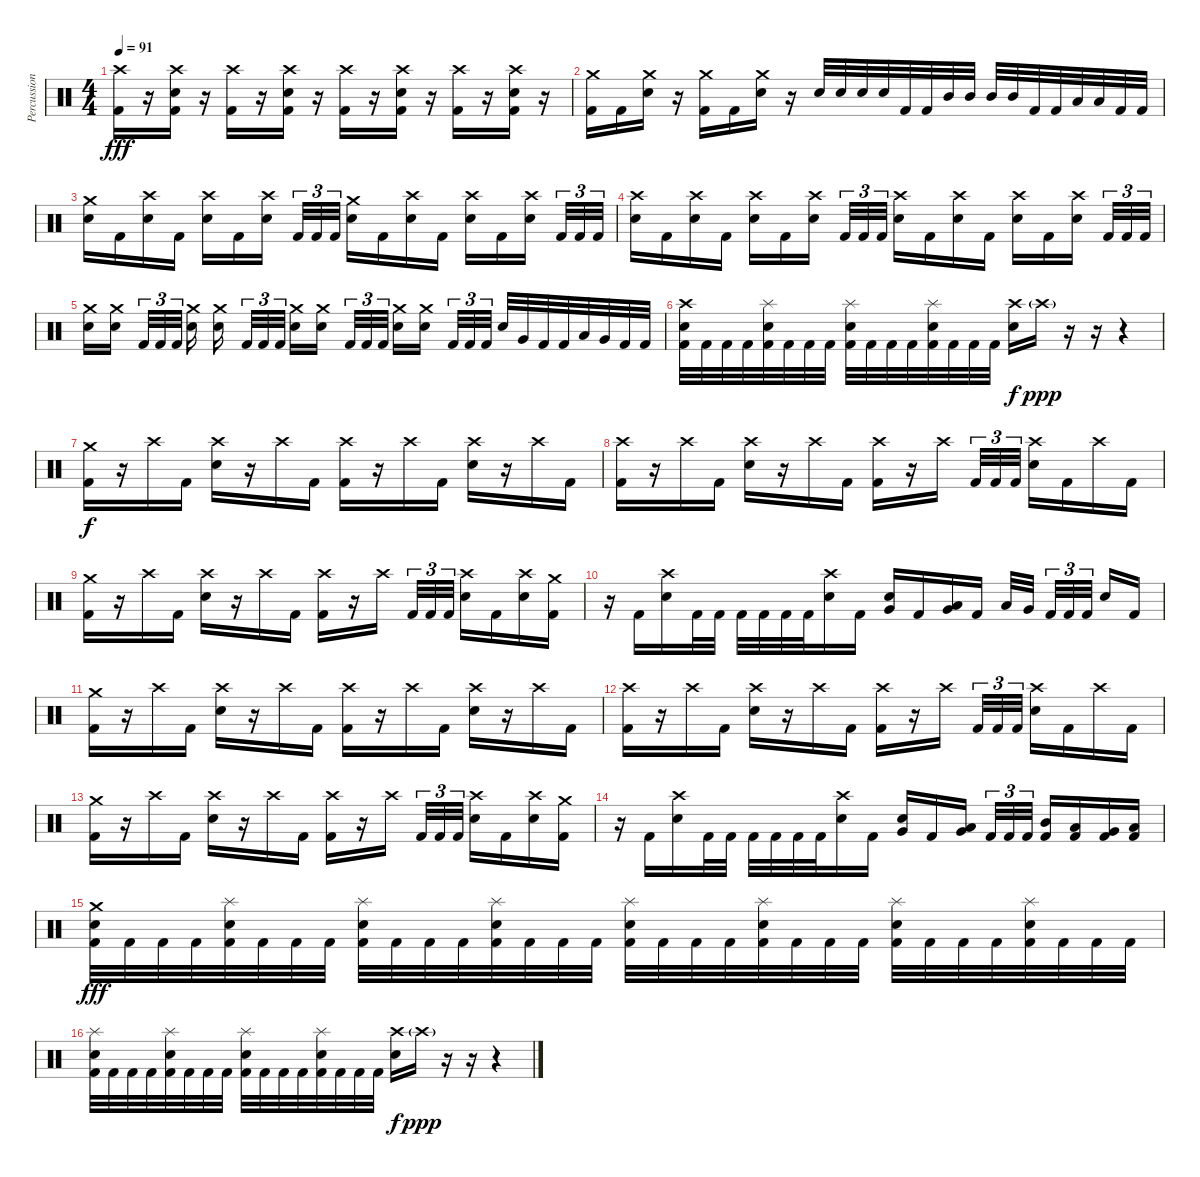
\track ("Percussion" "Percussion") {instrument percussion}
\staff {score}
\articulation defaults
\ts (4 4)
\tempo 91
\clef neutral
\ks c
("Crash high (hit)" "Kick (hit) 2").16{dy fff} r.16 ("Crash high (hit)" "Electric Snare (hit)" "Kick (hit) 2").16 r.16 ("Crash high (hit)" "Kick (hit) 2").16 r.16 ("Crash high (hit)" "Electric Snare (hit)" "Kick (hit) 2").16 r.16 ("Crash high (hit)" "Kick (hit) 2").16 r.16 ("Crash high (hit)" "Electric Snare (hit)" "Kick (hit) 2").16 r.16 ("Crash high (hit)" "Kick (hit) 2").16 r.16 ("Crash high (hit)" "Electric Snare (hit)" "Kick (hit) 2").16 r.16 |
("Crash medium (hit)" "Kick (hit) 2").16 "Kick (hit) 2".16 ("Crash medium (hit)" "Electric Snare (hit)").16 r.16 ("Crash medium (hit)" "Kick (hit) 2").16 "Kick (hit) 2".16 ("Crash medium (hit)" "Electric Snare (hit)").16 r.16 "Electric Snare (hit)".32 "Electric Snare (hit)".32 "Electric Snare (hit)".32 "Electric Snare (hit)".32 "Kick (hit) 2".32 "Kick (hit) 2".32 "Mid Tom (hit)".32 "Mid Tom (hit)".32 "Mid Tom (hit)".32 "Mid Tom (hit)".32 "Kick (hit) 2".32 "Kick (hit) 2".32 "Low Tom (hit)".32 "Low Tom (hit)".32 "Kick (hit) 2".32 "Kick (hit) 2".32 |
("Crash medium (hit)" "Electric Snare (hit)").16 "Kick (hit) 2".16 ("Crash high (hit)" "Electric Snare (hit)").16 "Kick (hit) 2".16 ("Crash high (hit)" "Electric Snare (hit)").16 "Kick (hit) 2".16 ("Crash high (hit)" "Electric Snare (hit)").16{beam splitsecondary} "Kick (hit) 2".32{tu (3 2)} "Kick (hit) 2".32{tu (3 2)} "Kick (hit) 2".32{tu (3 2)} ("Crash medium (hit)" "Electric Snare (hit)").16 "Kick (hit) 2".16 ("Crash high (hit)" "Electric Snare (hit)").16 "Kick (hit) 2".16 ("Crash high (hit)" "Electric Snare (hit)").16 "Kick (hit) 2".16 ("Crash high (hit)" "Electric Snare (hit)").16{beam splitsecondary} "Kick (hit) 2".32{tu (3 2)} "Kick (hit) 2".32{tu (3 2)} "Kick (hit) 2".32{tu (3 2)} |
("Crash high (hit)" "Electric Snare (hit)").16 "Kick (hit) 2".16 ("Crash high (hit)" "Electric Snare (hit)").16 "Kick (hit) 2".16 ("Crash high (hit)" "Electric Snare (hit)").16 "Kick (hit) 2".16 ("Crash high (hit)" "Electric Snare (hit)").16{beam splitsecondary} "Kick (hit) 2".32{tu (3 2)} "Kick (hit) 2".32{tu (3 2)} "Kick (hit) 2".32{tu (3 2)} ("Crash high (hit)" "Electric Snare (hit)").16 "Kick (hit) 2".16 ("Crash high (hit)" "Electric Snare (hit)").16 "Kick (hit) 2".16 ("Crash high (hit)" "Electric Snare (hit)").16 "Kick (hit) 2".16 ("Crash high (hit)" "Electric Snare (hit)").16{beam splitsecondary} "Kick (hit) 2".32{tu (3 2)} "Kick (hit) 2".32{tu (3 2)} "Kick (hit) 2".32{tu (3 2)} |
("Crash medium (hit)" "Electric Snare (hit)").16 ("Crash medium (hit)" "Electric Snare (hit)").16{beam splitsecondary} "Kick (hit) 2".32{tu (3 2)} "Kick (hit) 2".32{tu (3 2)} "Kick (hit) 2".32{tu (3 2) beam splitsecondary} ("Crash medium (hit)" "Electric Snare (hit)").16 ("Crash medium (hit)" "Electric Snare (hit)").16{beam splitsecondary} "Kick (hit) 2".32{tu (3 2)} "Kick (hit) 2".32{tu (3 2)} "Kick (hit) 2".32{tu (3 2) beam splitsecondary} ("Crash medium (hit)" "Electric Snare (hit)").16 ("Crash medium (hit)" "Electric Snare (hit)").16 "Kick (hit) 2".32{tu (3 2)} "Kick (hit) 2".32{tu (3 2)} "Kick (hit) 2".32{tu (3 2) beam splitsecondary} ("Crash medium (hit)" "Electric Snare (hit)").16 ("Crash medium (hit)" "Electric Snare (hit)").16{beam splitsecondary} "Kick (hit) 2".32{tu (3 2)} "Kick (hit) 2".32{tu (3 2)} "Kick (hit) 2".32{tu (3 2)} "Electric Snare (hit)".32 "Very Low Tom (hit)".32 "Kick (hit) 2".32 "Kick (hit) 2".32 "Low Tom (hit)".32 "Very Low Tom (hit)".32 "Kick (hit) 2".32 "Kick (hit) 2".32 |
("Crash high (hit)" "Electric Snare (hit)" "Kick (hit) 2").32 "Kick (hit) 2".32 "Kick (hit) 2".32 "Kick (hit) 2".32 ("Splash (hit)" "Electric Snare (hit)" "Kick (hit) 2").32 "Kick (hit) 2".32 "Kick (hit) 2".32 "Kick (hit) 2".32 ("Splash (hit)" "Electric Snare (hit)" "Kick (hit) 2").32 "Kick (hit) 2".32 "Kick (hit) 2".32 "Kick (hit) 2".32 ("Splash (hit)" "Electric Snare (hit)" "Kick (hit) 2").32 "Kick (hit) 2".32 "Kick (hit) 2".32 "Kick (hit) 2".32 ("Crash high (hit)" "Electric Snare (hit)").16{dy f} "Crash high (hit)"{g}.16{dy ppp} r.16 r.16 r.4 |
("Crash medium (hit)" "Kick (hit) 2").16{dy f} r.16 "Crash high (hit)".16 "Kick (hit) 2".16 ("Crash high (hit)" "Electric Snare (hit)").16 r.16 "Crash high (hit)".16 "Kick (hit) 2".16 ("Crash high (hit)" "Kick (hit) 2").16 r.16 "Crash high (hit)".16 "Kick (hit) 2".16 ("Crash high (hit)" "Electric Snare (hit)").16 r.16 "Crash high (hit)".16 "Kick (hit) 2".16 |
("Crash high (hit)" "Kick (hit) 2").16 r.16 "Crash high (hit)".16 "Kick (hit) 2".16 ("Crash high (hit)" "Electric Snare (hit)").16 r.16 "Crash high (hit)".16 "Kick (hit) 2".16 ("Crash high (hit)" "Kick (hit) 2").16 r.16 "Crash high (hit)".16{beam splitsecondary} "Kick (hit) 2".32{tu (3 2)} "Kick (hit) 2".32{tu (3 2)} "Kick (hit) 2".32{tu (3 2)} ("Crash high (hit)" "Electric Snare (hit)").16 "Kick (hit) 2".16 "Crash high (hit)".16 "Kick (hit) 2".16 |
("Crash medium (hit)" "Kick (hit) 2").16 r.16 "Crash high (hit)".16 "Kick (hit) 2".16 ("Crash high (hit)" "Electric Snare (hit)").16 r.16 "Crash high (hit)".16 "Kick (hit) 2".16 ("Crash high (hit)" "Kick (hit) 2").16 r.16 "Crash high (hit)".16{beam splitsecondary} "Kick (hit) 2".32{tu (3 2)} "Kick (hit) 2".32{tu (3 2)} "Kick (hit) 2".32{tu (3 2)} ("Crash high (hit)" "Electric Snare (hit)").16 "Kick (hit) 2".16 ("Crash high (hit)" "Electric Snare (hit)").16 ("Crash medium (hit)" "Kick (hit) 2").16 |
r.16 "Kick (hit) 2".16 ("Crash high (hit)" "Electric Snare (hit)").16 "Kick (hit) 2".32 "Kick (hit) 2".32 "Kick (hit) 2".32 "Kick (hit) 2".32 "Kick (hit) 2".32 "Kick (hit) 2".32 ("Crash high (hit)" "Electric Snare (hit)").16 "Kick (hit) 2".16 ("Electric Snare (hit)" "Very Low Tom (hit)").16 "Kick (hit) 2".16 ("Very Low Tom (hit)" "Low Floor Tom (hit)").16 "Kick (hit) 2".16 "Low Tom (hit)".32 "Very Low Tom (hit)".32{beam splitsecondary} "Kick (hit) 2".32{tu (3 2)} "Kick (hit) 2".32{tu (3 2)} "Kick (hit) 2".32{tu (3 2) beam splitsecondary} "Electric Snare (hit)".16 "Kick (hit) 2".16 |
("Crash medium (hit)" "Kick (hit) 2").16 r.16 "Crash high (hit)".16 "Kick (hit) 2".16 ("Crash high (hit)" "Electric Snare (hit)").16 r.16 "Crash high (hit)".16 "Kick (hit) 2".16 ("Crash high (hit)" "Kick (hit) 2").16 r.16 "Crash high (hit)".16 "Kick (hit) 2".16 ("Crash high (hit)" "Electric Snare (hit)").16 r.16 "Crash high (hit)".16 "Kick (hit) 2".16 |
("Crash high (hit)" "Kick (hit) 2").16 r.16 "Crash high (hit)".16 "Kick (hit) 2".16 ("Crash high (hit)" "Electric Snare (hit)").16 r.16 "Crash high (hit)".16 "Kick (hit) 2".16 ("Crash high (hit)" "Kick (hit) 2").16 r.16 "Crash high (hit)".16{beam splitsecondary} "Kick (hit) 2".32{tu (3 2)} "Kick (hit) 2".32{tu (3 2)} "Kick (hit) 2".32{tu (3 2)} ("Crash high (hit)" "Electric Snare (hit)").16 "Kick (hit) 2".16 "Crash high (hit)".16 "Kick (hit) 2".16 |
("Crash medium (hit)" "Kick (hit) 2").16 r.16 "Crash high (hit)".16 "Kick (hit) 2".16 ("Crash high (hit)" "Electric Snare (hit)").16 r.16 "Crash high (hit)".16 "Kick (hit) 2".16 ("Crash high (hit)" "Kick (hit) 2").16 r.16 "Crash high (hit)".16{beam splitsecondary} "Kick (hit) 2".32{tu (3 2)} "Kick (hit) 2".32{tu (3 2)} "Kick (hit) 2".32{tu (3 2)} ("Crash high (hit)" "Electric Snare (hit)").16 "Kick (hit) 2".16 ("Crash high (hit)" "Electric Snare (hit)").16 ("Crash medium (hit)" "Kick (hit) 2").16 |
r.16 "Kick (hit) 2".16 ("Crash high (hit)" "Electric Snare (hit)").16 "Kick (hit) 2".32 "Kick (hit) 2".32 "Kick (hit) 2".32 "Kick (hit) 2".32 "Kick (hit) 2".32 "Kick (hit) 2".32 ("Crash high (hit)" "Electric Snare (hit)").16 "Kick (hit) 2".16 ("Electric Snare (hit)" "Very Low Tom (hit)").16 "Kick (hit) 2".16 ("Very Low Tom (hit)" "Low Floor Tom (hit)").16{beam splitsecondary} "Kick (hit) 2".32{tu (3 2)} "Kick (hit) 2".32{tu (3 2)} "Kick (hit) 2".32{tu (3 2)} ("Mid Tom (hit)" "Kick (hit) 2").16 ("Low Tom (hit)" "Kick (hit) 2").16 ("Very Low Tom (hit)" "Kick (hit) 2").16 ("Low Floor Tom (hit)" "Kick (hit) 2").16 |
("Crash medium (hit)" "Electric Snare (hit)" "Kick (hit) 2").32{dy fff} "Kick (hit) 2".32 "Kick (hit) 2".32 "Kick (hit) 2".32 ("Splash (hit)" "Electric Snare (hit)" "Kick (hit) 2").32 "Kick (hit) 2".32 "Kick (hit) 2".32 "Kick (hit) 2".32 ("Splash (hit)" "Electric Snare (hit)" "Kick (hit) 2").32 "Kick (hit) 2".32 "Kick (hit) 2".32 "Kick (hit) 2".32 ("Splash (hit)" "Electric Snare (hit)" "Kick (hit) 2").32 "Kick (hit) 2".32 "Kick (hit) 2".32 "Kick (hit) 2".32 ("Splash (hit)" "Electric Snare (hit)" "Kick (hit) 2").32 "Kick (hit) 2".32 "Kick (hit) 2".32 "Kick (hit) 2".32 ("Splash (hit)" "Electric Snare (hit)" "Kick (hit) 2").32 "Kick (hit) 2".32 "Kick (hit) 2".32 "Kick (hit) 2".32 ("Splash (hit)" "Electric Snare (hit)" "Kick (hit) 2").32 "Kick (hit) 2".32 "Kick (hit) 2".32 "Kick (hit) 2".32 ("Splash (hit)" "Electric Snare (hit)" "Kick (hit) 2").32 "Kick (hit) 2".32 "Kick (hit) 2".32 "Kick (hit) 2".32 |
("Splash (hit)" "Electric Snare (hit)" "Kick (hit) 2").32 "Kick (hit) 2".32 "Kick (hit) 2".32 "Kick (hit) 2".32 ("Splash (hit)" "Electric Snare (hit)" "Kick (hit) 2").32 "Kick (hit) 2".32 "Kick (hit) 2".32 "Kick (hit) 2".32 ("Splash (hit)" "Electric Snare (hit)" "Kick (hit) 2").32 "Kick (hit) 2".32 "Kick (hit) 2".32 "Kick (hit) 2".32 ("Splash (hit)" "Electric Snare (hit)" "Kick (hit) 2").32 "Kick (hit) 2".32 "Kick (hit) 2".32 "Kick (hit) 2".32 ("Crash high (hit)" "Electric Snare (hit)").16{dy f} "Crash high (hit)"{g}.16{dy ppp} r.16 r.16 r.4
